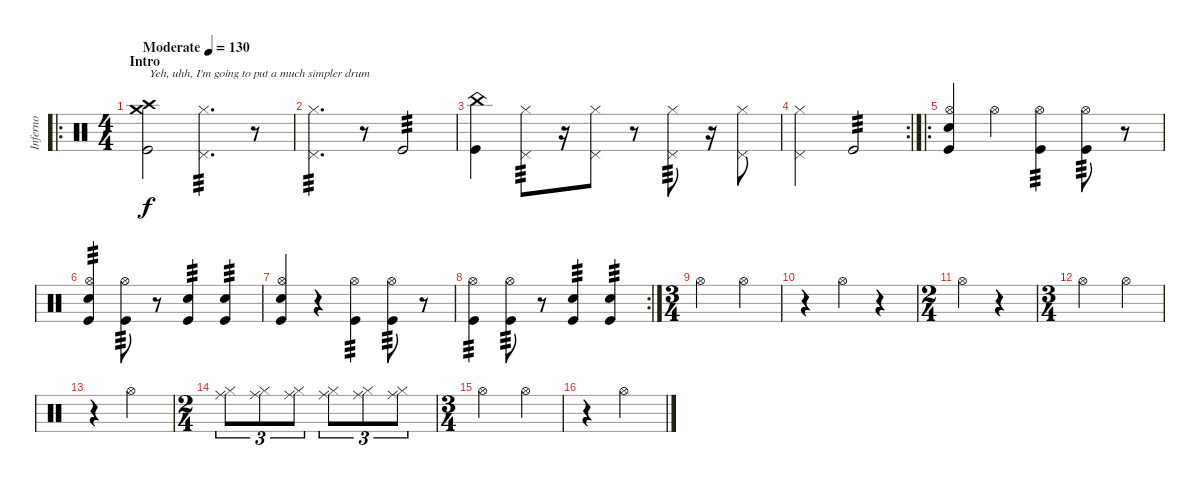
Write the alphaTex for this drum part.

\track ("Inferno" "Inferno") {instrument percussion}
\staff {score}
\articulation defaults
\ro
\ts (4 4)
\section ("" "Intro")
\tempo (130 "Moderate")
\clef neutral
\ks c
("Crash high (hit)" "Crash medium (hit)" "Kick (hit)").2{txt "Yeh, uhh, I'm going to put a much simpler drum" dy f} ("Hi-Hat (closed)" "Pedal Hi-Hat (hit)").4{d tp 3} r.8 |
("Hi-Hat (closed)" "Pedal Hi-Hat (hit)").4{d tp 3} r.8 "Kick (hit)".2{tp 3} |
("China (hit)" "Kick (hit)").4 ("Hi-Hat (closed)" "Pedal Hi-Hat (hit)").8{tp 3} r.16 ("Hi-Hat (closed)" "Pedal Hi-Hat (hit)").8 r.8 ("Hi-Hat (closed)" "Pedal Hi-Hat (hit)").8{tp 3} r.16 ("Hi-Hat (closed)" "Pedal Hi-Hat (hit)").8 |
\rc 2
("Hi-Hat (closed)" "Pedal Hi-Hat (hit)").2 "Kick (hit)".2{tp 3} |
\ro
("Hi-Hat (open)" "Snare (hit) 2" "Kick (hit)").4 "Hi-Hat (open)".4 ("Hi-Hat (open)" "Kick (hit)").4{tp 3} ("Hi-Hat (open)" "Kick (hit)").8{tp 3} r.8 |
("Hi-Hat (open)" "Snare (hit) 2" "Kick (hit)").4{tp 3} ("Hi-Hat (open)" "Kick (hit)").8{tp 3} r.8 ("Snare (hit) 2" "Kick (hit)").4{tp 3} ("Snare (hit) 2" "Kick (hit)").4{tp 3} |
("Hi-Hat (open)" "Snare (hit) 2" "Kick (hit)").4 r.4 ("Hi-Hat (open)" "Kick (hit)").4{tp 3} ("Hi-Hat (open)" "Kick (hit)").8{tp 3} r.8 |
\rc 2
("Hi-Hat (open)" "Kick (hit)").4{tp 3} ("Hi-Hat (open)" "Kick (hit)").8{tp 3} r.8 ("Snare (hit) 2" "Kick (hit)").4{tp 3} ("Snare (hit) 2" "Kick (hit)").4{tp 3} |
\ts (3 4)
"Hi-Hat (open)".2 "Hi-Hat (open)".4 |
r.4 "Hi-Hat (open)".4 r.4 |
\ts (2 4)
"Hi-Hat (open)".4 r.4 |
\ts (3 4)
"Hi-Hat (open)".2 "Hi-Hat (open)".4 |
r.4 "Hi-Hat (open)".2 |
\ts (2 4)
("Hi-Hat (closed)" "Ride (middle)").8{tu (3 2)} ("Hi-Hat (closed)" "Ride (middle)").8{tu (3 2)} ("Hi-Hat (closed)" "Ride (middle)").8{tu (3 2)} ("Hi-Hat (closed)" "Ride (middle)").8{tu (3 2)} ("Hi-Hat (closed)" "Ride (middle)").8{tu (3 2)} ("Hi-Hat (closed)" "Ride (middle)").8{tu (3 2)} |
\ts (3 4)
"Hi-Hat (open)".2 "Hi-Hat (open)".4 |
r.4 "Hi-Hat (open)".2
